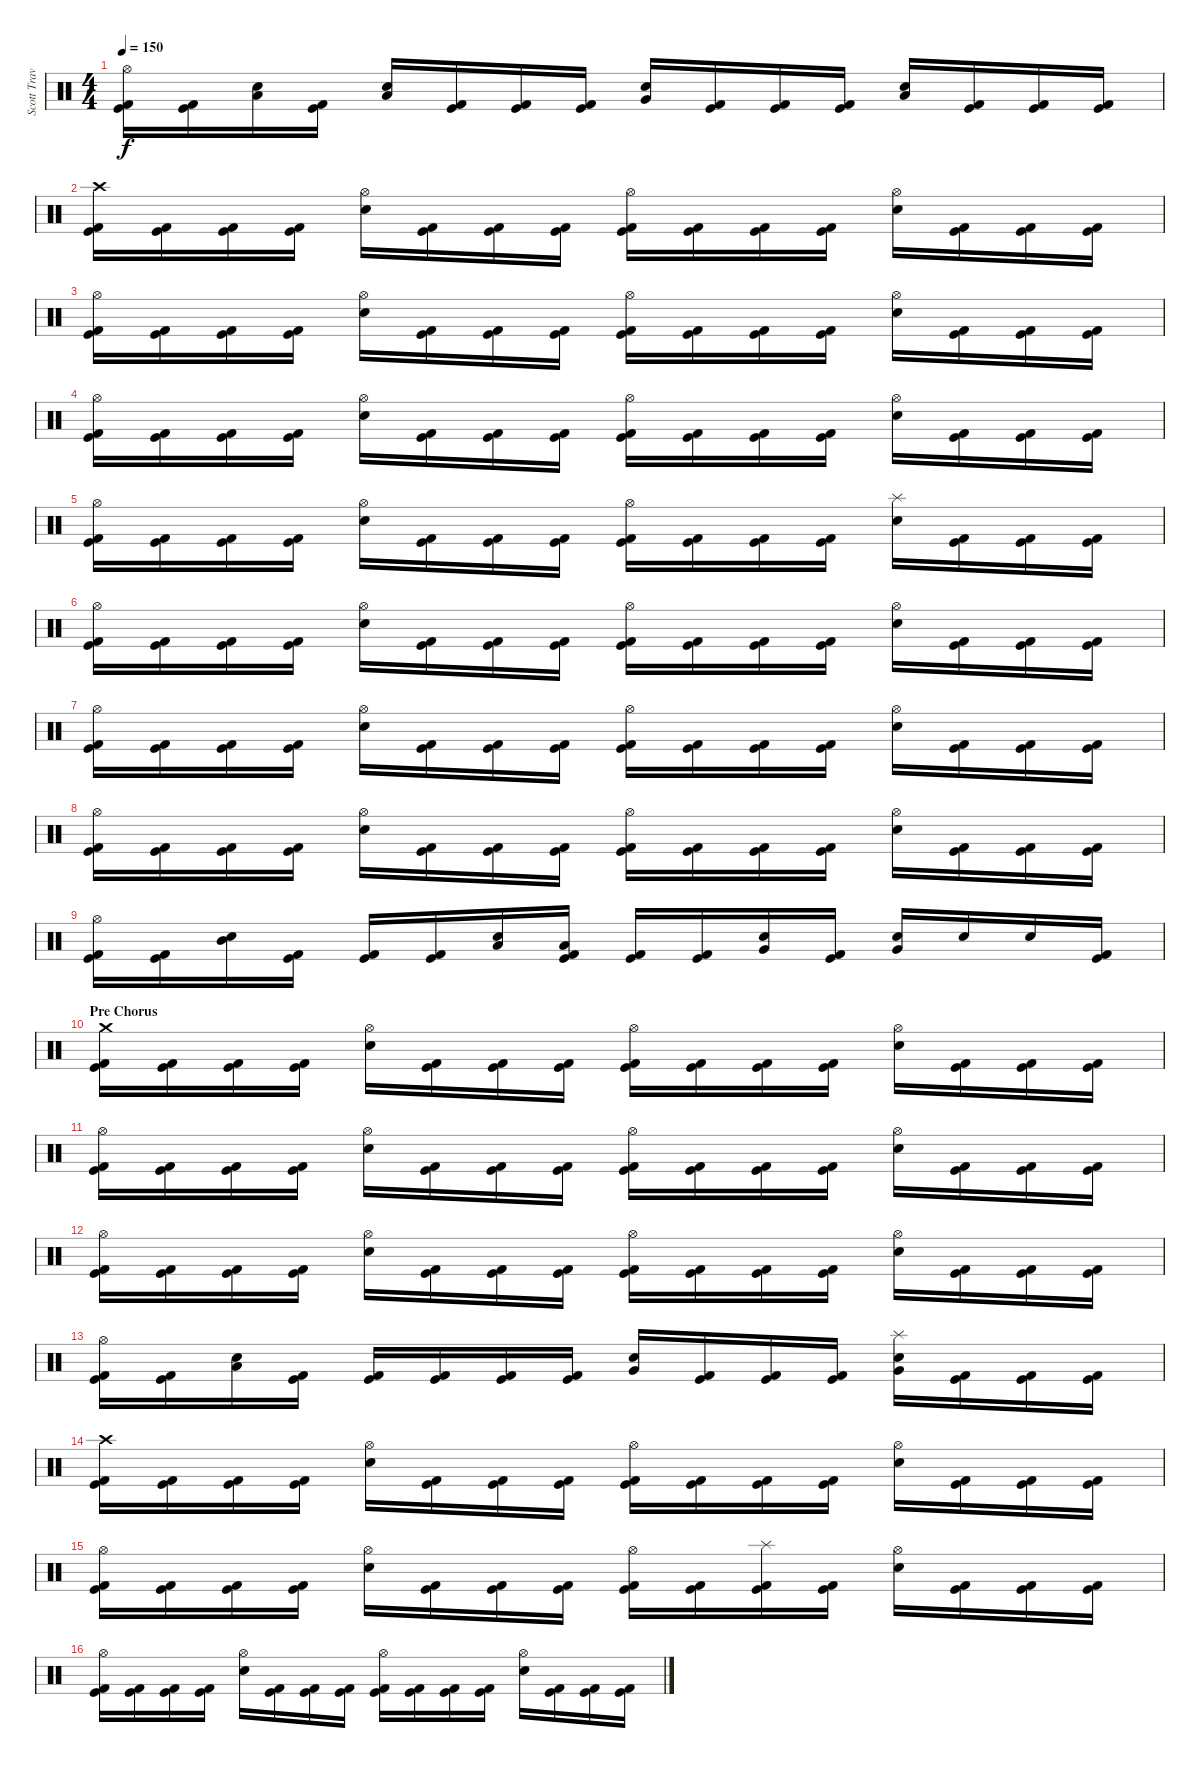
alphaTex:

\track ("Scott Travis" "Scott Trav") {instrument percussion}
\staff {score}
\articulation defaults
\ts (4 4)
\tempo 150
\clef neutral
\ks c
("Hi-Hat (open)" "Kick (hit)" "Kick (hit) 2").16{dy f} ("Kick (hit)" "Kick (hit) 2").16 ("Low Tom (hit)" "Electric Snare (hit)").16 ("Kick (hit)" "Kick (hit) 2").16 ("Low Tom (hit)" "Electric Snare (hit)").16 ("Kick (hit)" "Kick (hit) 2").16 ("Kick (hit)" "Kick (hit) 2").16 ("Kick (hit)" "Kick (hit) 2").16 ("Very Low Tom (hit)" "Electric Snare (hit)").16 ("Kick (hit)" "Kick (hit) 2").16 ("Kick (hit)" "Kick (hit) 2").16 ("Kick (hit)" "Kick (hit) 2").16 ("Low Floor Tom (hit)" "Electric Snare (hit)").16 ("Kick (hit)" "Kick (hit) 2").16 ("Kick (hit)" "Kick (hit) 2").16 ("Kick (hit)" "Kick (hit) 2").16 |
("Crash high (hit)" "Kick (hit)" "Kick (hit) 2").16 ("Kick (hit)" "Kick (hit) 2").16 ("Kick (hit)" "Kick (hit) 2").16 ("Kick (hit)" "Kick (hit) 2").16 ("Hi-Hat (open)" "Electric Snare (hit)").16 ("Kick (hit)" "Kick (hit) 2").16 ("Kick (hit)" "Kick (hit) 2").16 ("Kick (hit)" "Kick (hit) 2").16 ("Hi-Hat (open)" "Kick (hit)" "Kick (hit) 2").16 ("Kick (hit)" "Kick (hit) 2").16 ("Kick (hit)" "Kick (hit) 2").16 ("Kick (hit)" "Kick (hit) 2").16 ("Hi-Hat (open)" "Electric Snare (hit)").16 ("Kick (hit)" "Kick (hit) 2").16 ("Kick (hit)" "Kick (hit) 2").16 ("Kick (hit)" "Kick (hit) 2").16 |
("Hi-Hat (open)" "Kick (hit)" "Kick (hit) 2").16 ("Kick (hit)" "Kick (hit) 2").16 ("Kick (hit)" "Kick (hit) 2").16 ("Kick (hit)" "Kick (hit) 2").16 ("Hi-Hat (open)" "Electric Snare (hit)").16 ("Kick (hit)" "Kick (hit) 2").16 ("Kick (hit)" "Kick (hit) 2").16 ("Kick (hit)" "Kick (hit) 2").16 ("Hi-Hat (open)" "Kick (hit)" "Kick (hit) 2").16 ("Kick (hit)" "Kick (hit) 2").16 ("Kick (hit)" "Kick (hit) 2").16 ("Kick (hit)" "Kick (hit) 2").16 ("Hi-Hat (open)" "Electric Snare (hit)").16 ("Kick (hit)" "Kick (hit) 2").16 ("Kick (hit)" "Kick (hit) 2").16 ("Kick (hit)" "Kick (hit) 2").16 |
("Hi-Hat (open)" "Kick (hit)" "Kick (hit) 2").16 ("Kick (hit)" "Kick (hit) 2").16 ("Kick (hit)" "Kick (hit) 2").16 ("Kick (hit)" "Kick (hit) 2").16 ("Hi-Hat (open)" "Electric Snare (hit)").16 ("Kick (hit)" "Kick (hit) 2").16 ("Kick (hit)" "Kick (hit) 2").16 ("Kick (hit)" "Kick (hit) 2").16 ("Hi-Hat (open)" "Kick (hit)" "Kick (hit) 2").16 ("Kick (hit)" "Kick (hit) 2").16 ("Kick (hit)" "Kick (hit) 2").16 ("Kick (hit)" "Kick (hit) 2").16 ("Hi-Hat (open)" "Electric Snare (hit)").16 ("Kick (hit)" "Kick (hit) 2").16 ("Kick (hit)" "Kick (hit) 2").16 ("Kick (hit)" "Kick (hit) 2").16 |
("Hi-Hat (open)" "Kick (hit)" "Kick (hit) 2").16 ("Kick (hit)" "Kick (hit) 2").16 ("Kick (hit)" "Kick (hit) 2").16 ("Kick (hit)" "Kick (hit) 2").16 ("Hi-Hat (open)" "Electric Snare (hit)").16 ("Kick (hit)" "Kick (hit) 2").16 ("Kick (hit)" "Kick (hit) 2").16 ("Kick (hit)" "Kick (hit) 2").16 ("Hi-Hat (open)" "Kick (hit)" "Kick (hit) 2").16 ("Kick (hit)" "Kick (hit) 2").16 ("Kick (hit)" "Kick (hit) 2").16 ("Kick (hit)" "Kick (hit) 2").16 ("Splash (hit)" "Electric Snare (hit)").16 ("Kick (hit)" "Kick (hit) 2").16 ("Kick (hit)" "Kick (hit) 2").16 ("Kick (hit)" "Kick (hit) 2").16 |
("Hi-Hat (open)" "Kick (hit)" "Kick (hit) 2").16 ("Kick (hit)" "Kick (hit) 2").16 ("Kick (hit)" "Kick (hit) 2").16 ("Kick (hit)" "Kick (hit) 2").16 ("Hi-Hat (open)" "Electric Snare (hit)").16 ("Kick (hit)" "Kick (hit) 2").16 ("Kick (hit)" "Kick (hit) 2").16 ("Kick (hit)" "Kick (hit) 2").16 ("Hi-Hat (open)" "Kick (hit)" "Kick (hit) 2").16 ("Kick (hit)" "Kick (hit) 2").16 ("Kick (hit)" "Kick (hit) 2").16 ("Kick (hit)" "Kick (hit) 2").16 ("Hi-Hat (open)" "Electric Snare (hit)").16 ("Kick (hit)" "Kick (hit) 2").16 ("Kick (hit)" "Kick (hit) 2").16 ("Kick (hit)" "Kick (hit) 2").16 |
("Hi-Hat (open)" "Kick (hit)" "Kick (hit) 2").16 ("Kick (hit)" "Kick (hit) 2").16 ("Kick (hit)" "Kick (hit) 2").16 ("Kick (hit)" "Kick (hit) 2").16 ("Hi-Hat (open)" "Electric Snare (hit)").16 ("Kick (hit)" "Kick (hit) 2").16 ("Kick (hit)" "Kick (hit) 2").16 ("Kick (hit)" "Kick (hit) 2").16 ("Hi-Hat (open)" "Kick (hit)" "Kick (hit) 2").16 ("Kick (hit)" "Kick (hit) 2").16 ("Kick (hit)" "Kick (hit) 2").16 ("Kick (hit)" "Kick (hit) 2").16 ("Hi-Hat (open)" "Electric Snare (hit)").16 ("Kick (hit)" "Kick (hit) 2").16 ("Kick (hit)" "Kick (hit) 2").16 ("Kick (hit)" "Kick (hit) 2").16 |
("Hi-Hat (open)" "Kick (hit)" "Kick (hit) 2").16 ("Kick (hit)" "Kick (hit) 2").16 ("Kick (hit)" "Kick (hit) 2").16 ("Kick (hit)" "Kick (hit) 2").16 ("Hi-Hat (open)" "Electric Snare (hit)").16 ("Kick (hit)" "Kick (hit) 2").16 ("Kick (hit)" "Kick (hit) 2").16 ("Kick (hit)" "Kick (hit) 2").16 ("Hi-Hat (open)" "Kick (hit)" "Kick (hit) 2").16 ("Kick (hit)" "Kick (hit) 2").16 ("Kick (hit)" "Kick (hit) 2").16 ("Kick (hit)" "Kick (hit) 2").16 ("Hi-Hat (open)" "Electric Snare (hit)").16 ("Kick (hit)" "Kick (hit) 2").16 ("Kick (hit)" "Kick (hit) 2").16 ("Kick (hit)" "Kick (hit) 2").16 |
("Hi-Hat (open)" "Kick (hit)" "Kick (hit) 2").16 ("Kick (hit)" "Kick (hit) 2").16 ("Mid Tom (hit)" "Electric Snare (hit)").16 ("Kick (hit)" "Kick (hit) 2").16 ("Kick (hit)" "Kick (hit) 2").16 ("Kick (hit)" "Kick (hit) 2").16 ("Low Tom (hit)" "Electric Snare (hit)").16 ("Low Tom (hit)" "Kick (hit)" "Kick (hit) 2").16 ("Kick (hit)" "Kick (hit) 2").16 ("Kick (hit)" "Kick (hit) 2").16 ("Very Low Tom (hit)" "Electric Snare (hit)").16 ("Kick (hit)" "Kick (hit) 2").16 ("Very Low Tom (hit)" "Electric Snare (hit)").16 "Electric Snare (hit)".16 "Electric Snare (hit)".16 ("Kick (hit)" "Kick (hit) 2").16 |
\section ("" "Pre Chorus")
("Crash medium (hit)" "Kick (hit)" "Kick (hit) 2").16 ("Kick (hit)" "Kick (hit) 2").16 ("Kick (hit)" "Kick (hit) 2").16 ("Kick (hit)" "Kick (hit) 2").16 ("Hi-Hat (open)" "Electric Snare (hit)").16 ("Kick (hit)" "Kick (hit) 2").16 ("Kick (hit)" "Kick (hit) 2").16 ("Kick (hit)" "Kick (hit) 2").16 ("Hi-Hat (open)" "Kick (hit)" "Kick (hit) 2").16 ("Kick (hit)" "Kick (hit) 2").16 ("Kick (hit)" "Kick (hit) 2").16 ("Kick (hit)" "Kick (hit) 2").16 ("Hi-Hat (open)" "Electric Snare (hit)").16 ("Kick (hit)" "Kick (hit) 2").16 ("Kick (hit)" "Kick (hit) 2").16 ("Kick (hit)" "Kick (hit) 2").16 |
("Hi-Hat (open)" "Kick (hit)" "Kick (hit) 2").16 ("Kick (hit)" "Kick (hit) 2").16 ("Kick (hit)" "Kick (hit) 2").16 ("Kick (hit)" "Kick (hit) 2").16 ("Hi-Hat (open)" "Electric Snare (hit)").16 ("Kick (hit)" "Kick (hit) 2").16 ("Kick (hit)" "Kick (hit) 2").16 ("Kick (hit)" "Kick (hit) 2").16 ("Hi-Hat (open)" "Kick (hit)" "Kick (hit) 2").16 ("Kick (hit)" "Kick (hit) 2").16 ("Kick (hit)" "Kick (hit) 2").16 ("Kick (hit)" "Kick (hit) 2").16 ("Hi-Hat (open)" "Electric Snare (hit)").16 ("Kick (hit)" "Kick (hit) 2").16 ("Kick (hit)" "Kick (hit) 2").16 ("Kick (hit)" "Kick (hit) 2").16 |
("Hi-Hat (open)" "Kick (hit)" "Kick (hit) 2").16 ("Kick (hit)" "Kick (hit) 2").16 ("Kick (hit)" "Kick (hit) 2").16 ("Kick (hit)" "Kick (hit) 2").16 ("Hi-Hat (open)" "Electric Snare (hit)").16 ("Kick (hit)" "Kick (hit) 2").16 ("Kick (hit)" "Kick (hit) 2").16 ("Kick (hit)" "Kick (hit) 2").16 ("Hi-Hat (open)" "Kick (hit)" "Kick (hit) 2").16 ("Kick (hit)" "Kick (hit) 2").16 ("Kick (hit)" "Kick (hit) 2").16 ("Kick (hit)" "Kick (hit) 2").16 ("Hi-Hat (open)" "Electric Snare (hit)").16 ("Kick (hit)" "Kick (hit) 2").16 ("Kick (hit)" "Kick (hit) 2").16 ("Kick (hit)" "Kick (hit) 2").16 |
("Hi-Hat (open)" "Kick (hit)" "Kick (hit) 2").16 ("Kick (hit)" "Kick (hit) 2").16 ("Low Tom (hit)" "Electric Snare (hit)").16 ("Kick (hit)" "Kick (hit) 2").16 ("Kick (hit)" "Kick (hit) 2").16 ("Kick (hit)" "Kick (hit) 2").16 ("Kick (hit)" "Kick (hit) 2").16 ("Kick (hit)" "Kick (hit) 2").16 ("Very Low Tom (hit)" "Electric Snare (hit)").16 ("Kick (hit)" "Kick (hit) 2").16 ("Kick (hit)" "Kick (hit) 2").16 ("Kick (hit)" "Kick (hit) 2").16 ("Splash (hit)" "Very Low Tom (hit)" "Electric Snare (hit)").16 ("Kick (hit)" "Kick (hit) 2").16 ("Kick (hit)" "Kick (hit) 2").16 ("Kick (hit)" "Kick (hit) 2").16 |
("Crash high (hit)" "Kick (hit)" "Kick (hit) 2").16 ("Kick (hit)" "Kick (hit) 2").16 ("Kick (hit)" "Kick (hit) 2").16 ("Kick (hit)" "Kick (hit) 2").16 ("Hi-Hat (open)" "Electric Snare (hit)").16 ("Kick (hit)" "Kick (hit) 2").16 ("Kick (hit)" "Kick (hit) 2").16 ("Kick (hit)" "Kick (hit) 2").16 ("Hi-Hat (open)" "Kick (hit)" "Kick (hit) 2").16 ("Kick (hit)" "Kick (hit) 2").16 ("Kick (hit)" "Kick (hit) 2").16 ("Kick (hit)" "Kick (hit) 2").16 ("Hi-Hat (open)" "Electric Snare (hit)").16 ("Kick (hit)" "Kick (hit) 2").16 ("Kick (hit)" "Kick (hit) 2").16 ("Kick (hit)" "Kick (hit) 2").16 |
("Hi-Hat (open)" "Kick (hit)" "Kick (hit) 2").16 ("Kick (hit)" "Kick (hit) 2").16 ("Kick (hit)" "Kick (hit) 2").16 ("Kick (hit)" "Kick (hit) 2").16 ("Hi-Hat (open)" "Electric Snare (hit)").16 ("Kick (hit)" "Kick (hit) 2").16 ("Kick (hit)" "Kick (hit) 2").16 ("Kick (hit)" "Kick (hit) 2").16 ("Hi-Hat (open)" "Kick (hit)" "Kick (hit) 2").16 ("Kick (hit)" "Kick (hit) 2").16 ("Splash (hit)" "Kick (hit)" "Kick (hit) 2").16 ("Kick (hit)" "Kick (hit) 2").16 ("Hi-Hat (open)" "Electric Snare (hit)").16 ("Kick (hit)" "Kick (hit) 2").16 ("Kick (hit)" "Kick (hit) 2").16 ("Kick (hit)" "Kick (hit) 2").16 |
("Hi-Hat (open)" "Kick (hit)" "Kick (hit) 2").16 ("Kick (hit)" "Kick (hit) 2").16 ("Kick (hit)" "Kick (hit) 2").16 ("Kick (hit)" "Kick (hit) 2").16 ("Hi-Hat (open)" "Electric Snare (hit)").16 ("Kick (hit)" "Kick (hit) 2").16 ("Kick (hit)" "Kick (hit) 2").16 ("Kick (hit)" "Kick (hit) 2").16 ("Hi-Hat (open)" "Kick (hit)" "Kick (hit) 2").16 ("Kick (hit)" "Kick (hit) 2").16 ("Kick (hit)" "Kick (hit) 2").16 ("Kick (hit)" "Kick (hit) 2").16 ("Hi-Hat (open)" "Electric Snare (hit)").16 ("Kick (hit)" "Kick (hit) 2").16 ("Kick (hit)" "Kick (hit) 2").16 ("Kick (hit)" "Kick (hit) 2").16
